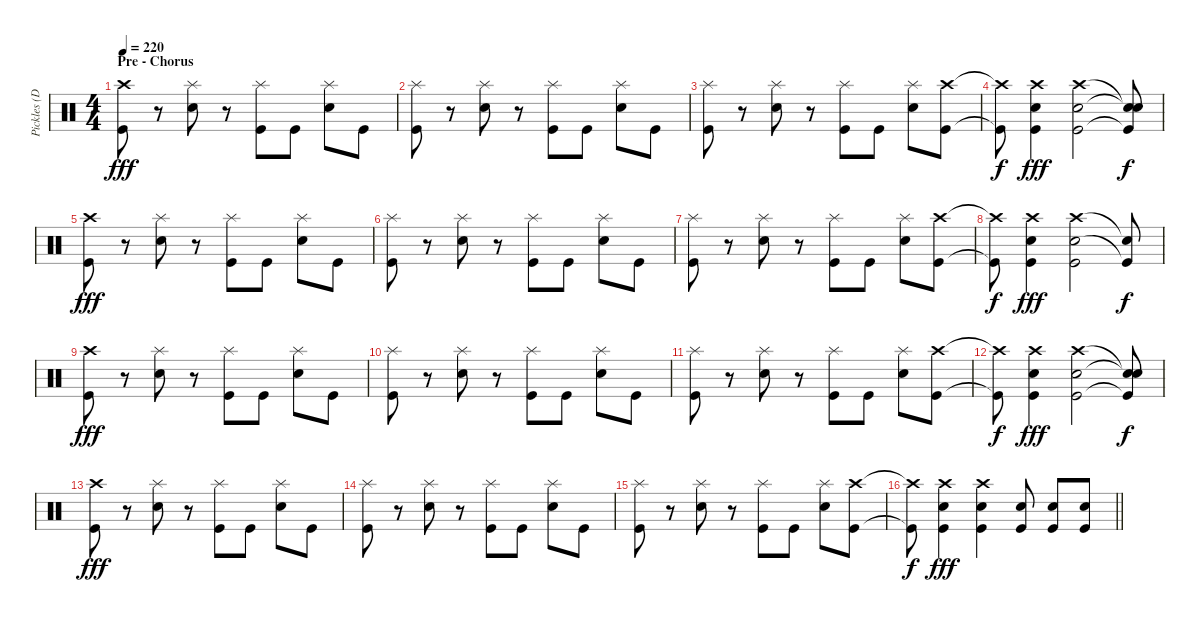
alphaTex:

\track ("Pickles (Drums)" "Pickles (D") {instrument percussion}
\staff {score}
\articulation defaults
\ts (4 4)
\section ("" "Pre - Chorus")
\tempo 220
\clef neutral
\ks c
("Crash high (hit)" "Kick (hit)").8{dy fff} r.8 ("Splash (hit)" "Electric Snare (hit)").8 r.8 ("Splash (hit)" "Kick (hit)").8 "Kick (hit)".8 ("Splash (hit)" "Electric Snare (hit)").8 "Kick (hit)".8 |
("Splash (hit)" "Kick (hit)").8 r.8 ("Splash (hit)" "Electric Snare (hit)").8 r.8 ("Splash (hit)" "Kick (hit)").8 "Kick (hit)".8 ("Splash (hit)" "Electric Snare (hit)").8 "Kick (hit)".8 |
("Splash (hit)" "Kick (hit)").8 r.8 ("Splash (hit)" "Electric Snare (hit)").8 r.8 ("Splash (hit)" "Kick (hit)").8 "Kick (hit)".8 ("Splash (hit)" "Electric Snare (hit)").8 ("Crash high (hit)" "Kick (hit)").8 |
("Crash high (hit)"{t} "Kick (hit)"{t}).8{dy f} ("Crash high (hit)" "Electric Snare (hit)" "Kick (hit)").4{dy fff} ("Crash high (hit)" "Electric Snare (hit)" "Kick (hit)").2 ("Snare (hit)"{t} "Electric Snare (hit)"{t} "Kick (hit)"{t}).8{dy f} |
("Crash high (hit)" "Kick (hit)").8{dy fff} r.8 ("Splash (hit)" "Electric Snare (hit)").8 r.8 ("Splash (hit)" "Kick (hit)").8 "Kick (hit)".8 ("Splash (hit)" "Electric Snare (hit)").8 "Kick (hit)".8 |
("Splash (hit)" "Kick (hit)").8 r.8 ("Splash (hit)" "Electric Snare (hit)").8 r.8 ("Splash (hit)" "Kick (hit)").8 "Kick (hit)".8 ("Splash (hit)" "Electric Snare (hit)").8 "Kick (hit)".8 |
("Splash (hit)" "Kick (hit)").8 r.8 ("Splash (hit)" "Electric Snare (hit)").8 r.8 ("Splash (hit)" "Kick (hit)").8 "Kick (hit)".8 ("Splash (hit)" "Electric Snare (hit)").8 ("Crash high (hit)" "Kick (hit)").8 |
("Crash high (hit)"{t} "Kick (hit)"{t}).8{dy f} ("Crash high (hit)" "Electric Snare (hit)" "Kick (hit)").4{dy fff} ("Crash high (hit)" "Electric Snare (hit)" "Kick (hit)").2 ("Snare (hit)"{t} "Kick (hit)"{t}).8{dy f} |
("Crash high (hit)" "Kick (hit)").8{dy fff} r.8 ("Splash (hit)" "Electric Snare (hit)").8 r.8 ("Splash (hit)" "Kick (hit)").8 "Kick (hit)".8 ("Splash (hit)" "Electric Snare (hit)").8 "Kick (hit)".8 |
("Splash (hit)" "Kick (hit)").8 r.8 ("Splash (hit)" "Electric Snare (hit)").8 r.8 ("Splash (hit)" "Kick (hit)").8 "Kick (hit)".8 ("Splash (hit)" "Electric Snare (hit)").8 "Kick (hit)".8 |
("Splash (hit)" "Kick (hit)").8 r.8 ("Splash (hit)" "Electric Snare (hit)").8 r.8 ("Splash (hit)" "Kick (hit)").8 "Kick (hit)".8 ("Splash (hit)" "Electric Snare (hit)").8 ("Crash high (hit)" "Kick (hit)").8 |
("Crash high (hit)"{t} "Kick (hit)"{t}).8{dy f} ("Crash high (hit)" "Electric Snare (hit)" "Kick (hit)").4{dy fff} ("Crash high (hit)" "Electric Snare (hit)" "Kick (hit)").2 ("Snare (hit)"{t} "Electric Snare (hit)"{t} "Kick (hit)"{t}).8{dy f} |
("Crash high (hit)" "Kick (hit)").8{dy fff} r.8 ("Splash (hit)" "Electric Snare (hit)").8 r.8 ("Splash (hit)" "Kick (hit)").8 "Kick (hit)".8 ("Splash (hit)" "Electric Snare (hit)").8 "Kick (hit)".8 |
("Splash (hit)" "Kick (hit)").8 r.8 ("Splash (hit)" "Electric Snare (hit)").8 r.8 ("Splash (hit)" "Kick (hit)").8 "Kick (hit)".8 ("Splash (hit)" "Electric Snare (hit)").8 "Kick (hit)".8 |
("Splash (hit)" "Kick (hit)").8 r.8 ("Splash (hit)" "Electric Snare (hit)").8 r.8 ("Splash (hit)" "Kick (hit)").8 "Kick (hit)".8 ("Splash (hit)" "Electric Snare (hit)").8 ("Crash high (hit)" "Kick (hit)").8 |
\barLineRight lightlight
("Crash high (hit)"{t} "Kick (hit)"{t}).8{dy f} ("Crash high (hit)" "Electric Snare (hit)" "Kick (hit)").4{dy fff} ("Crash high (hit)" "Electric Snare (hit)" "Kick (hit)").4 ("Electric Snare (hit)" "Kick (hit)").8 ("Electric Snare (hit)" "Kick (hit)").8 ("Electric Snare (hit)" "Kick (hit)").8
